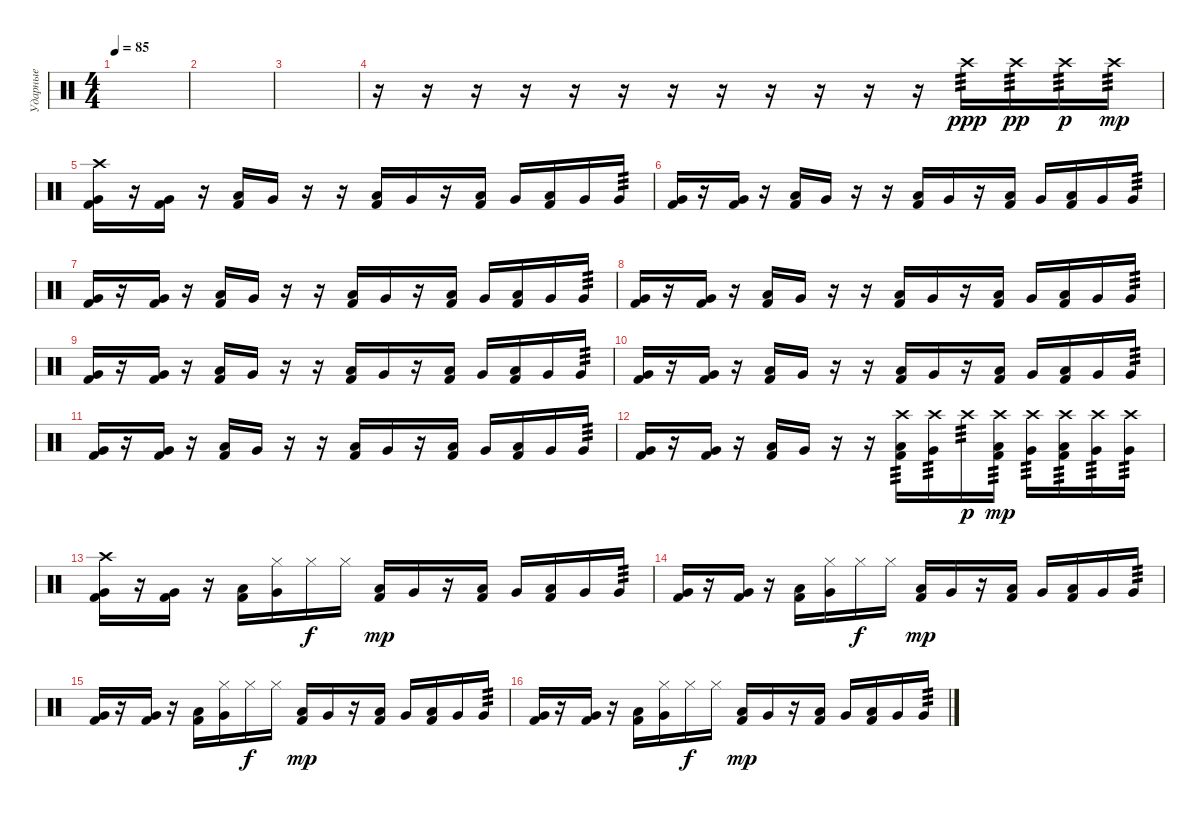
\track ("Ударные" "Ударные") {instrument percussion}
\staff {score}
\articulation defaults
\ts (4 4)
\tempo 85
\clef neutral
\ks c
|
|
|
r.16 r.16 r.16 r.16 r.16 r.16 r.16 r.16 r.16 r.16 r.16 r.16 "Crash high (hit)".16{tp 3 dy ppp} "Crash high (hit)".16{tp 3 dy pp} "Crash high (hit)".16{tp 3 dy p} "Crash high (hit)".16{tp 3 dy mp} |
("Crash high (hit)" "Very Low Tom (hit)" "Kick (hit) 2").16 r.16 ("Very Low Tom (hit)" "Kick (hit) 2").16 r.16 ("Low Tom (hit)" "Kick (hit) 2").16 "Very Low Tom (hit)".16 r.16 r.16 ("Low Tom (hit)" "Kick (hit) 2").16 "Very Low Tom (hit)".16 r.16 ("Low Tom (hit)" "Kick (hit) 2").16 "Very Low Tom (hit)".16 ("Low Tom (hit)" "Kick (hit) 2").16 "Very Low Tom (hit)".16 "Very Low Tom (hit)".16{tp 3} |
("Very Low Tom (hit)" "Kick (hit) 2").16 r.16 ("Very Low Tom (hit)" "Kick (hit) 2").16 r.16 ("Low Tom (hit)" "Kick (hit) 2").16 "Very Low Tom (hit)".16 r.16 r.16 ("Low Tom (hit)" "Kick (hit) 2").16 "Very Low Tom (hit)".16 r.16 ("Low Tom (hit)" "Kick (hit) 2").16 "Very Low Tom (hit)".16 ("Low Tom (hit)" "Kick (hit) 2").16 "Very Low Tom (hit)".16 "Very Low Tom (hit)".16{tp 3} |
("Very Low Tom (hit)" "Kick (hit) 2").16 r.16 ("Very Low Tom (hit)" "Kick (hit) 2").16 r.16 ("Low Tom (hit)" "Kick (hit) 2").16 "Very Low Tom (hit)".16 r.16 r.16 ("Low Tom (hit)" "Kick (hit) 2").16 "Very Low Tom (hit)".16 r.16 ("Low Tom (hit)" "Kick (hit) 2").16 "Very Low Tom (hit)".16 ("Low Tom (hit)" "Kick (hit) 2").16 "Very Low Tom (hit)".16 "Very Low Tom (hit)".16{tp 3} |
("Very Low Tom (hit)" "Kick (hit) 2").16 r.16 ("Very Low Tom (hit)" "Kick (hit) 2").16 r.16 ("Low Tom (hit)" "Kick (hit) 2").16 "Very Low Tom (hit)".16 r.16 r.16 ("Low Tom (hit)" "Kick (hit) 2").16 "Very Low Tom (hit)".16 r.16 ("Low Tom (hit)" "Kick (hit) 2").16 "Very Low Tom (hit)".16 ("Low Tom (hit)" "Kick (hit) 2").16 "Very Low Tom (hit)".16 "Very Low Tom (hit)".16{tp 3} |
("Very Low Tom (hit)" "Kick (hit) 2").16 r.16 ("Very Low Tom (hit)" "Kick (hit) 2").16 r.16 ("Low Tom (hit)" "Kick (hit) 2").16 "Very Low Tom (hit)".16 r.16 r.16 ("Low Tom (hit)" "Kick (hit) 2").16 "Very Low Tom (hit)".16 r.16 ("Low Tom (hit)" "Kick (hit) 2").16 "Very Low Tom (hit)".16 ("Low Tom (hit)" "Kick (hit) 2").16 "Very Low Tom (hit)".16 "Very Low Tom (hit)".16{tp 3} |
("Very Low Tom (hit)" "Kick (hit) 2").16 r.16 ("Very Low Tom (hit)" "Kick (hit) 2").16 r.16 ("Low Tom (hit)" "Kick (hit) 2").16 "Very Low Tom (hit)".16 r.16 r.16 ("Low Tom (hit)" "Kick (hit) 2").16 "Very Low Tom (hit)".16 r.16 ("Low Tom (hit)" "Kick (hit) 2").16 "Very Low Tom (hit)".16 ("Low Tom (hit)" "Kick (hit) 2").16 "Very Low Tom (hit)".16 "Very Low Tom (hit)".16{tp 3} |
("Very Low Tom (hit)" "Kick (hit) 2").16 r.16 ("Very Low Tom (hit)" "Kick (hit) 2").16 r.16 ("Low Tom (hit)" "Kick (hit) 2").16 "Very Low Tom (hit)".16 r.16 r.16 ("Low Tom (hit)" "Kick (hit) 2").16 "Very Low Tom (hit)".16 r.16 ("Low Tom (hit)" "Kick (hit) 2").16 "Very Low Tom (hit)".16 ("Low Tom (hit)" "Kick (hit) 2").16 "Very Low Tom (hit)".16 "Very Low Tom (hit)".16{tp 3} |
("Very Low Tom (hit)" "Kick (hit) 2").16 r.16 ("Very Low Tom (hit)" "Kick (hit) 2").16 r.16 ("Low Tom (hit)" "Kick (hit) 2").16 "Very Low Tom (hit)".16 r.16 r.16 ("Crash high (hit)" "Low Tom (hit)" "Kick (hit) 2").16{tp 3} ("Crash high (hit)" "Very Low Tom (hit)").16{tp 3} "Crash high (hit)".16{tp 3 dy p} ("Crash high (hit)" "Low Tom (hit)" "Kick (hit) 2").16{tp 3 dy mp} ("Crash high (hit)" "Very Low Tom (hit)").16{tp 3} ("Crash high (hit)" "Low Tom (hit)" "Kick (hit) 2").16{tp 3} ("Crash high (hit)" "Very Low Tom (hit)").16{tp 3} ("Crash high (hit)" "Very Low Tom (hit)").16{tp 3} |
("Crash high (hit)" "Very Low Tom (hit)" "Kick (hit) 2").16 r.16 ("Very Low Tom (hit)" "Kick (hit) 2").16 r.16 ("Low Tom (hit)" "Kick (hit) 2").16 ("Hi-Hat (closed)" "Very Low Tom (hit)").16 "Hi-Hat (closed)".16{dy f} "Hi-Hat (closed)".16 ("Low Tom (hit)" "Kick (hit) 2").16{dy mp} "Very Low Tom (hit)".16 r.16 ("Low Tom (hit)" "Kick (hit) 2").16 "Very Low Tom (hit)".16 ("Low Tom (hit)" "Kick (hit) 2").16 "Very Low Tom (hit)".16 "Very Low Tom (hit)".16{tp 3} |
("Very Low Tom (hit)" "Kick (hit) 2").16 r.16 ("Very Low Tom (hit)" "Kick (hit) 2").16 r.16 ("Low Tom (hit)" "Kick (hit) 2").16 ("Hi-Hat (closed)" "Very Low Tom (hit)").16 "Hi-Hat (closed)".16{dy f} "Hi-Hat (closed)".16 ("Low Tom (hit)" "Kick (hit) 2").16{dy mp} "Very Low Tom (hit)".16 r.16 ("Low Tom (hit)" "Kick (hit) 2").16 "Very Low Tom (hit)".16 ("Low Tom (hit)" "Kick (hit) 2").16 "Very Low Tom (hit)".16 "Very Low Tom (hit)".16{tp 3} |
("Very Low Tom (hit)" "Kick (hit) 2").16 r.16 ("Very Low Tom (hit)" "Kick (hit) 2").16 r.16 ("Low Tom (hit)" "Kick (hit) 2").16 ("Hi-Hat (closed)" "Very Low Tom (hit)").16 "Hi-Hat (closed)".16{dy f} "Hi-Hat (closed)".16 ("Low Tom (hit)" "Kick (hit) 2").16{dy mp} "Very Low Tom (hit)".16 r.16 ("Low Tom (hit)" "Kick (hit) 2").16 "Very Low Tom (hit)".16 ("Low Tom (hit)" "Kick (hit) 2").16 "Very Low Tom (hit)".16 "Very Low Tom (hit)".16{tp 3} |
("Very Low Tom (hit)" "Kick (hit) 2").16 r.16 ("Very Low Tom (hit)" "Kick (hit) 2").16 r.16 ("Low Tom (hit)" "Kick (hit) 2").16 ("Hi-Hat (closed)" "Very Low Tom (hit)").16 "Hi-Hat (closed)".16{dy f} "Hi-Hat (closed)".16 ("Low Tom (hit)" "Kick (hit) 2").16{dy mp} "Very Low Tom (hit)".16 r.16 ("Low Tom (hit)" "Kick (hit) 2").16 "Very Low Tom (hit)".16 ("Low Tom (hit)" "Kick (hit) 2").16 "Very Low Tom (hit)".16 "Very Low Tom (hit)".16{tp 3}
